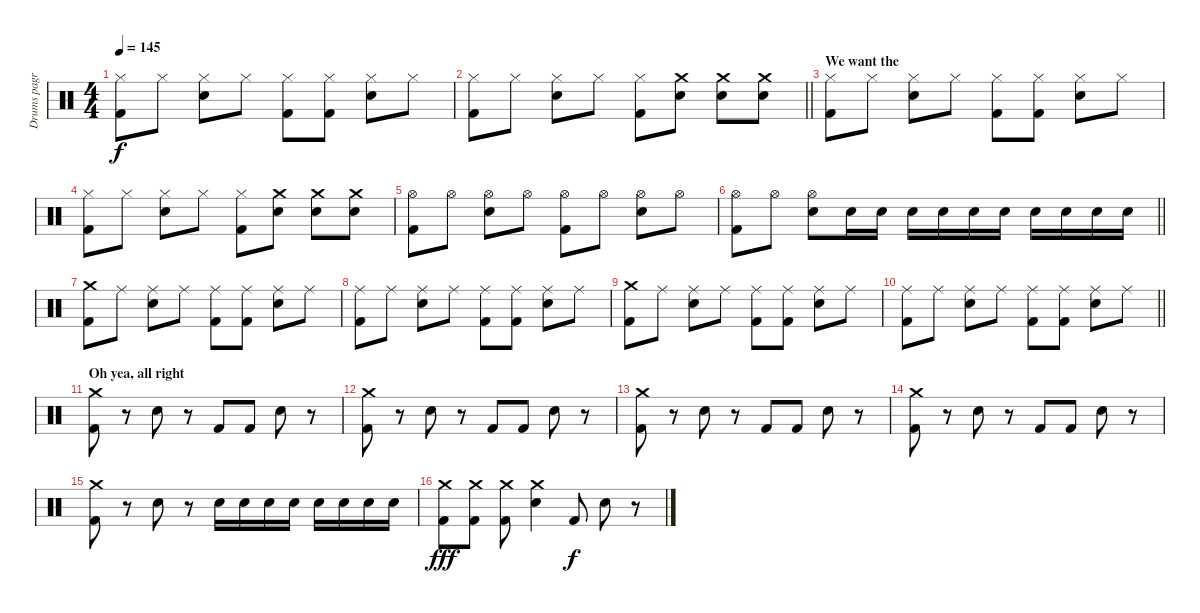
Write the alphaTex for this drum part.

\track ("Drums pagr" "Drums pagr") {instrument percussion}
\staff {score}
\articulation defaults
\ts (4 4)
\tempo 145
\clef neutral
\ks c
("Hi-Hat (closed)" "Kick (hit) 2").8{dy f} "Hi-Hat (closed)".8 ("Hi-Hat (closed)" "Snare (hit) 2").8 "Hi-Hat (closed)".8 ("Hi-Hat (closed)" "Kick (hit) 2").8 ("Hi-Hat (closed)" "Kick (hit) 2").8 ("Hi-Hat (closed)" "Snare (hit) 2").8 "Hi-Hat (closed)".8 |
\barLineRight lightlight
("Hi-Hat (closed)" "Kick (hit) 2").8 "Hi-Hat (closed)".8 ("Hi-Hat (closed)" "Snare (hit) 2").8 "Hi-Hat (closed)".8 ("Hi-Hat (closed)" "Kick (hit) 2").8 ("Crash medium (hit)" "Snare (hit) 2").8 ("Crash medium (hit)" "Snare (hit) 2").8 ("Crash medium (hit)" "Snare (hit) 2").8 |
\section ("" "We want the")
("Hi-Hat (closed)" "Kick (hit) 2").8 "Hi-Hat (closed)".8 ("Hi-Hat (closed)" "Snare (hit) 2").8 "Hi-Hat (closed)".8 ("Hi-Hat (closed)" "Kick (hit) 2").8 ("Hi-Hat (closed)" "Kick (hit) 2").8 ("Hi-Hat (closed)" "Snare (hit) 2").8 "Hi-Hat (closed)".8 |
("Hi-Hat (closed)" "Kick (hit) 2").8 "Hi-Hat (closed)".8 ("Hi-Hat (closed)" "Snare (hit) 2").8 "Hi-Hat (closed)".8 ("Hi-Hat (closed)" "Kick (hit) 2").8 ("Crash medium (hit)" "Snare (hit) 2").8 ("Crash medium (hit)" "Snare (hit) 2").8 ("Crash medium (hit)" "Snare (hit) 2").8 |
("Hi-Hat (open)" "Kick (hit) 2").8 "Hi-Hat (open)".8 ("Hi-Hat (open)" "Snare (hit) 2").8 "Hi-Hat (open)".8 ("Hi-Hat (open)" "Kick (hit) 2").8 "Hi-Hat (open)".8 ("Hi-Hat (open)" "Snare (hit) 2").8 "Hi-Hat (open)".8 |
\barLineRight lightlight
("Hi-Hat (open)" "Kick (hit) 2").8 "Hi-Hat (open)".8 ("Hi-Hat (open)" "Snare (hit) 2").8 "Snare (hit) 2".16 "Snare (hit) 2".16 "Snare (hit) 2".16 "Snare (hit) 2".16 "Snare (hit) 2".16 "Snare (hit) 2".16 "Snare (hit) 2".16 "Snare (hit) 2".16 "Snare (hit) 2".16 "Snare (hit) 2".16 |
("Crash medium (hit)" "Kick (hit) 2").8 "Ride (middle)".8 ("Ride (middle)" "Snare (hit) 2").8 "Ride (middle)".8 ("Ride (middle)" "Kick (hit) 2").8 ("Ride (middle)" "Kick (hit) 2").8 ("Ride (middle)" "Snare (hit) 2").8 "Ride (middle)".8 |
("Ride (middle)" "Kick (hit) 2").8 "Ride (middle)".8 ("Ride (middle)" "Snare (hit) 2").8 "Ride (middle)".8 ("Ride (middle)" "Kick (hit) 2").8 ("Ride (middle)" "Kick (hit) 2").8 ("Ride (middle)" "Snare (hit) 2").8 "Ride (middle)".8 |
("Crash medium (hit)" "Kick (hit) 2").8 "Ride (middle)".8 ("Ride (middle)" "Snare (hit) 2").8 "Ride (middle)".8 ("Ride (middle)" "Kick (hit) 2").8 ("Ride (middle)" "Kick (hit) 2").8 ("Ride (middle)" "Snare (hit) 2").8 "Ride (middle)".8 |
\barLineRight lightlight
("Ride (middle)" "Kick (hit) 2").8 "Ride (middle)".8 ("Ride (middle)" "Snare (hit) 2").8 "Ride (middle)".8 ("Ride (middle)" "Kick (hit) 2").8 ("Ride (middle)" "Kick (hit) 2").8 ("Ride (middle)" "Snare (hit) 2").8 "Ride (middle)".8 |
\section ("" "Oh yea, all right")
("Crash medium (hit)" "Kick (hit) 2").8 r.8 "Snare (hit) 2".8 r.8 "Kick (hit) 2".8 "Kick (hit) 2".8 "Snare (hit) 2".8 r.8 |
("Crash medium (hit)" "Kick (hit) 2").8 r.8 "Snare (hit) 2".8 r.8 "Kick (hit) 2".8 "Kick (hit) 2".8 "Snare (hit) 2".8 r.8 |
("Crash medium (hit)" "Kick (hit) 2").8 r.8 "Snare (hit) 2".8 r.8 "Kick (hit) 2".8 "Kick (hit) 2".8 "Snare (hit) 2".8 r.8 |
("Crash medium (hit)" "Kick (hit) 2").8 r.8 "Snare (hit) 2".8 r.8 "Kick (hit) 2".8 "Kick (hit) 2".8 "Snare (hit) 2".8 r.8 |
("Crash medium (hit)" "Kick (hit) 2").8 r.8 "Snare (hit) 2".8 r.8 "Snare (hit) 2".16 "Snare (hit) 2".16 "Snare (hit) 2".16 "Snare (hit) 2".16 "Snare (hit) 2".16 "Snare (hit) 2".16 "Snare (hit) 2".16 "Snare (hit) 2".16 |
("Crash medium (hit)" "Kick (hit) 2").8{dy fff} ("Crash medium (hit)" "Kick (hit) 2").8 ("Crash medium (hit)" "Kick (hit) 2").8 ("Crash medium (hit)" "Snare (hit) 2").4 "Kick (hit) 2".8{dy f} "Snare (hit) 2".8 r.8
